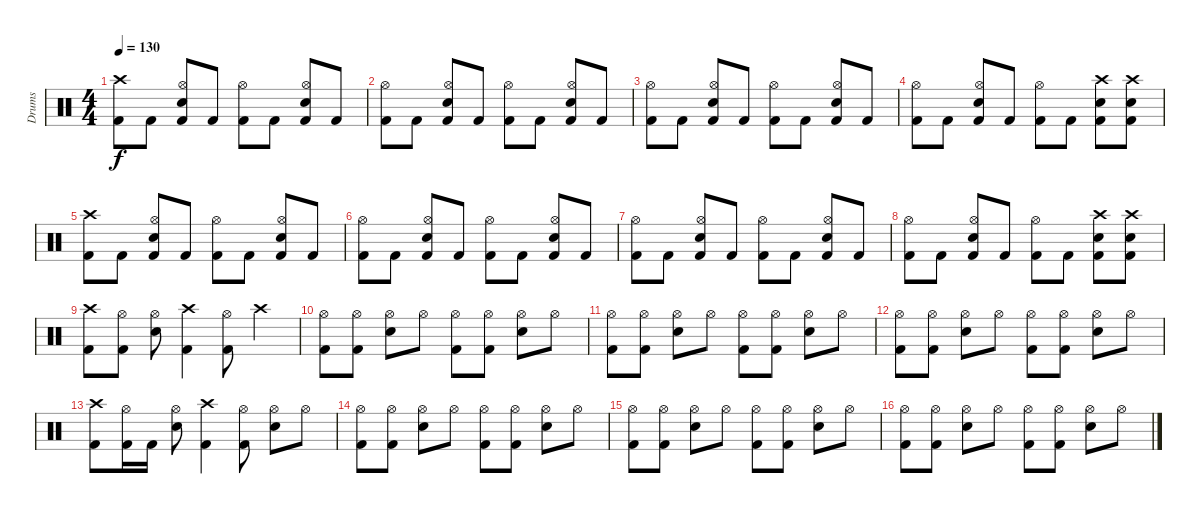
\track ("Drums" "Drums") {instrument percussion}
\staff {score}
\articulation defaults
\ts (4 4)
\tempo 130
\clef neutral
\ks c
("Crash high (hit)" "Kick (hit) 2").8{dy f} "Kick (hit) 2".8 ("Hi-Hat (open)" "Electric Snare (hit)" "Kick (hit) 2").8 "Kick (hit) 2".8 ("Hi-Hat (open)" "Kick (hit) 2").8 "Kick (hit) 2".8 ("Hi-Hat (open)" "Electric Snare (hit)" "Kick (hit) 2").8 "Kick (hit) 2".8 |
("Hi-Hat (open)" "Kick (hit) 2").8 "Kick (hit) 2".8 ("Hi-Hat (open)" "Electric Snare (hit)" "Kick (hit) 2").8 "Kick (hit) 2".8 ("Hi-Hat (open)" "Kick (hit) 2").8 "Kick (hit) 2".8 ("Hi-Hat (open)" "Electric Snare (hit)" "Kick (hit) 2").8 "Kick (hit) 2".8 |
("Hi-Hat (open)" "Kick (hit) 2").8 "Kick (hit) 2".8 ("Hi-Hat (open)" "Electric Snare (hit)" "Kick (hit) 2").8 "Kick (hit) 2".8 ("Hi-Hat (open)" "Kick (hit) 2").8 "Kick (hit) 2".8 ("Hi-Hat (open)" "Electric Snare (hit)" "Kick (hit) 2").8 "Kick (hit) 2".8 |
("Hi-Hat (open)" "Kick (hit) 2").8 "Kick (hit) 2".8 ("Hi-Hat (open)" "Electric Snare (hit)" "Kick (hit) 2").8 "Kick (hit) 2".8 ("Hi-Hat (open)" "Kick (hit) 2").8 "Kick (hit) 2".8 ("Crash high (hit)" "Electric Snare (hit)" "Kick (hit) 2").8 ("Crash high (hit)" "Electric Snare (hit)" "Kick (hit) 2").8 |
("Crash high (hit)" "Kick (hit) 2").8 "Kick (hit) 2".8 ("Hi-Hat (open)" "Electric Snare (hit)" "Kick (hit) 2").8 "Kick (hit) 2".8 ("Hi-Hat (open)" "Kick (hit) 2").8 "Kick (hit) 2".8 ("Hi-Hat (open)" "Electric Snare (hit)" "Kick (hit) 2").8 "Kick (hit) 2".8 |
("Hi-Hat (open)" "Kick (hit) 2").8 "Kick (hit) 2".8 ("Hi-Hat (open)" "Electric Snare (hit)" "Kick (hit) 2").8 "Kick (hit) 2".8 ("Hi-Hat (open)" "Kick (hit) 2").8 "Kick (hit) 2".8 ("Hi-Hat (open)" "Electric Snare (hit)" "Kick (hit) 2").8 "Kick (hit) 2".8 |
("Hi-Hat (open)" "Kick (hit) 2").8 "Kick (hit) 2".8 ("Hi-Hat (open)" "Electric Snare (hit)" "Kick (hit) 2").8 "Kick (hit) 2".8 ("Hi-Hat (open)" "Kick (hit) 2").8 "Kick (hit) 2".8 ("Hi-Hat (open)" "Electric Snare (hit)" "Kick (hit) 2").8 "Kick (hit) 2".8 |
("Hi-Hat (open)" "Kick (hit) 2").8 "Kick (hit) 2".8 ("Hi-Hat (open)" "Electric Snare (hit)" "Kick (hit) 2").8 "Kick (hit) 2".8 ("Hi-Hat (open)" "Kick (hit) 2").8 "Kick (hit) 2".8 ("Crash high (hit)" "Electric Snare (hit)" "Kick (hit) 2").8 ("Crash high (hit)" "Electric Snare (hit)" "Kick (hit) 2").8 |
("Crash high (hit)" "Kick (hit) 2").8 ("Hi-Hat (open)" "Kick (hit) 2").8 ("Hi-Hat (open)" "Electric Snare (hit)").8 ("Crash high (hit)" "Kick (hit) 2").4 ("Hi-Hat (open)" "Kick (hit) 2").8 "Crash high (hit)".4 |
("Hi-Hat (open)" "Kick (hit) 2").8 ("Hi-Hat (open)" "Kick (hit) 2").8 ("Hi-Hat (open)" "Electric Snare (hit)").8 "Hi-Hat (open)".8 ("Hi-Hat (open)" "Kick (hit) 2").8 ("Hi-Hat (open)" "Kick (hit) 2").8 ("Hi-Hat (open)" "Electric Snare (hit)").8 "Hi-Hat (open)".8 |
("Hi-Hat (open)" "Kick (hit) 2").8 ("Hi-Hat (open)" "Kick (hit) 2").8 ("Hi-Hat (open)" "Electric Snare (hit)").8 "Hi-Hat (open)".8 ("Hi-Hat (open)" "Kick (hit) 2").8 ("Hi-Hat (open)" "Kick (hit) 2").8 ("Hi-Hat (open)" "Electric Snare (hit)").8 "Hi-Hat (open)".8 |
("Hi-Hat (open)" "Kick (hit) 2").8 ("Hi-Hat (open)" "Kick (hit) 2").8 ("Hi-Hat (open)" "Electric Snare (hit)").8 "Hi-Hat (open)".8 ("Hi-Hat (open)" "Kick (hit) 2").8 ("Hi-Hat (open)" "Kick (hit) 2").8 ("Hi-Hat (open)" "Electric Snare (hit)").8 "Hi-Hat (open)".8 |
("Crash high (hit)" "Kick (hit) 2").8 ("Hi-Hat (open)" "Kick (hit) 2").16 "Kick (hit) 2".16 ("Hi-Hat (open)" "Electric Snare (hit)").8 ("Crash high (hit)" "Kick (hit) 2").4 ("Hi-Hat (open)" "Kick (hit) 2").8 ("Hi-Hat (open)" "Electric Snare (hit)").8 "Hi-Hat (open)".8 |
("Hi-Hat (open)" "Kick (hit) 2").8 ("Hi-Hat (open)" "Kick (hit) 2").8 ("Hi-Hat (open)" "Electric Snare (hit)").8 "Hi-Hat (open)".8 ("Hi-Hat (open)" "Kick (hit) 2").8 ("Hi-Hat (open)" "Kick (hit) 2").8 ("Hi-Hat (open)" "Electric Snare (hit)").8 "Hi-Hat (open)".8 |
("Hi-Hat (open)" "Kick (hit) 2").8 ("Hi-Hat (open)" "Kick (hit) 2").8 ("Hi-Hat (open)" "Electric Snare (hit)").8 "Hi-Hat (open)".8 ("Hi-Hat (open)" "Kick (hit) 2").8 ("Hi-Hat (open)" "Kick (hit) 2").8 ("Hi-Hat (open)" "Electric Snare (hit)").8 "Hi-Hat (open)".8 |
("Hi-Hat (open)" "Kick (hit) 2").8 ("Hi-Hat (open)" "Kick (hit) 2").8 ("Hi-Hat (open)" "Electric Snare (hit)").8 "Hi-Hat (open)".8 ("Hi-Hat (open)" "Kick (hit) 2").8 ("Hi-Hat (open)" "Kick (hit) 2").8 ("Hi-Hat (open)" "Electric Snare (hit)").8 "Hi-Hat (open)".8
